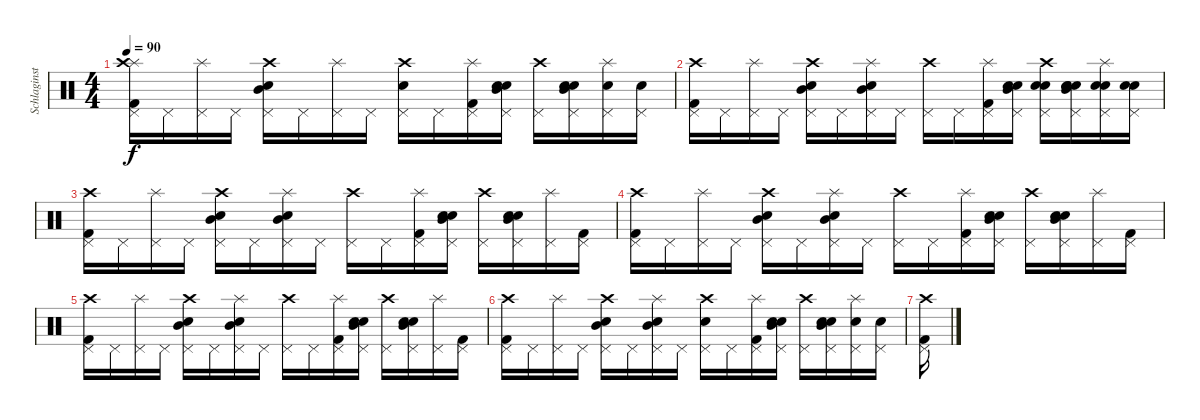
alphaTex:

\track ("Schlaginstrumente - Auswahl" "Schlaginst") {instrument percussion}
\staff {score}
\articulation defaults
\ts (4 4)
\tempo 90
\clef neutral
\ks c
("Splash (hit)" "Crash high (hit)" "Kick (hit) 2" "Pedal Hi-Hat (hit)").16{dy f} "Pedal Hi-Hat (hit)".16 ("Splash (hit)" "Pedal Hi-Hat (hit)").16 "Pedal Hi-Hat (hit)".16 ("Mid Tom (hit)" "Snare (hit) 2" "Crash high (hit)" "Pedal Hi-Hat (hit)").16 "Pedal Hi-Hat (hit)".16 ("Splash (hit)" "Pedal Hi-Hat (hit)").16 "Pedal Hi-Hat (hit)".16 ("Crash high (hit)" "Snare (hit) 2" "Pedal Hi-Hat (hit)").16 "Pedal Hi-Hat (hit)".16 ("Splash (hit)" "Kick (hit) 2" "Pedal Hi-Hat (hit)").16 ("Mid Tom (hit)" "Snare (hit) 2" "Electric Snare (hit)" "Pedal Hi-Hat (hit)").16 ("Crash high (hit)" "Pedal Hi-Hat (hit)").16 ("Mid Tom (hit)" "Snare (hit) 2" "Electric Snare (hit)" "Pedal Hi-Hat (hit)").16 ("Snare (hit) 2" "Splash (hit)" "Pedal Hi-Hat (hit)").16 ("Snare (hit) 2" "Pedal Hi-Hat (hit)").16 |
("Crash high (hit)" "Kick (hit) 2" "Pedal Hi-Hat (hit)").16 "Pedal Hi-Hat (hit)".16 ("Splash (hit)" "Pedal Hi-Hat (hit)").16 "Pedal Hi-Hat (hit)".16 ("Mid Tom (hit)" "Snare (hit) 2" "Crash high (hit)" "Pedal Hi-Hat (hit)").16 "Pedal Hi-Hat (hit)".16 ("Snare (hit) 2" "Mid Tom (hit)" "Splash (hit)" "Pedal Hi-Hat (hit)").16 "Pedal Hi-Hat (hit)".16 ("Crash high (hit)" "Pedal Hi-Hat (hit)").16 "Pedal Hi-Hat (hit)".16 ("Splash (hit)" "Kick (hit) 2" "Pedal Hi-Hat (hit)").16 ("Mid Tom (hit)" "Snare (hit) 2" "Electric Snare (hit)" "Pedal Hi-Hat (hit)").16 ("Crash high (hit)" "Electric Snare (hit)" "Pedal Hi-Hat (hit)" "Snare (hit) 2").16 ("Mid Tom (hit)" "Snare (hit) 2" "Electric Snare (hit)" "Pedal Hi-Hat (hit)" "Snare (hit) 2").16 ("Splash (hit)" "Electric Snare (hit)" "Pedal Hi-Hat (hit)" "Snare (hit) 2").16 ("Electric Snare (hit)" "Pedal Hi-Hat (hit)" "Snare (hit) 2").16 |
("Crash high (hit)" "Kick (hit) 2" "Pedal Hi-Hat (hit)").16 "Pedal Hi-Hat (hit)".16 ("Splash (hit)" "Pedal Hi-Hat (hit)").16 "Pedal Hi-Hat (hit)".16 ("Mid Tom (hit)" "Snare (hit) 2" "Crash high (hit)" "Pedal Hi-Hat (hit)").16 "Pedal Hi-Hat (hit)".16 ("Snare (hit) 2" "Mid Tom (hit)" "Splash (hit)" "Pedal Hi-Hat (hit)").16 "Pedal Hi-Hat (hit)".16 ("Crash high (hit)" "Pedal Hi-Hat (hit)").16 "Pedal Hi-Hat (hit)".16 ("Splash (hit)" "Kick (hit) 2" "Pedal Hi-Hat (hit)").16 ("Mid Tom (hit)" "Snare (hit) 2" "Electric Snare (hit)" "Pedal Hi-Hat (hit)").16 ("Crash high (hit)" "Pedal Hi-Hat (hit)").16 ("Mid Tom (hit)" "Snare (hit) 2" "Electric Snare (hit)" "Pedal Hi-Hat (hit)").16 ("Splash (hit)" "Pedal Hi-Hat (hit)").16 ("Kick (hit) 2" "Pedal Hi-Hat (hit)").16 |
("Crash high (hit)" "Kick (hit) 2" "Pedal Hi-Hat (hit)").16 "Pedal Hi-Hat (hit)".16 ("Splash (hit)" "Pedal Hi-Hat (hit)").16 "Pedal Hi-Hat (hit)".16 ("Mid Tom (hit)" "Snare (hit) 2" "Crash high (hit)" "Pedal Hi-Hat (hit)").16 "Pedal Hi-Hat (hit)".16 ("Snare (hit) 2" "Mid Tom (hit)" "Splash (hit)" "Pedal Hi-Hat (hit)").16 "Pedal Hi-Hat (hit)".16 ("Crash high (hit)" "Pedal Hi-Hat (hit)").16 "Pedal Hi-Hat (hit)".16 ("Splash (hit)" "Kick (hit) 2" "Pedal Hi-Hat (hit)").16 ("Mid Tom (hit)" "Snare (hit) 2" "Electric Snare (hit)" "Pedal Hi-Hat (hit)").16 ("Crash high (hit)" "Pedal Hi-Hat (hit)").16 ("Mid Tom (hit)" "Snare (hit) 2" "Electric Snare (hit)" "Pedal Hi-Hat (hit)").16 ("Splash (hit)" "Pedal Hi-Hat (hit)").16 ("Kick (hit) 2" "Pedal Hi-Hat (hit)").16 |
("Crash high (hit)" "Kick (hit) 2" "Pedal Hi-Hat (hit)").16 "Pedal Hi-Hat (hit)".16 ("Splash (hit)" "Pedal Hi-Hat (hit)").16 "Pedal Hi-Hat (hit)".16 ("Mid Tom (hit)" "Snare (hit) 2" "Crash high (hit)" "Pedal Hi-Hat (hit)").16 "Pedal Hi-Hat (hit)".16 ("Snare (hit) 2" "Mid Tom (hit)" "Splash (hit)" "Pedal Hi-Hat (hit)").16 "Pedal Hi-Hat (hit)".16 ("Crash high (hit)" "Pedal Hi-Hat (hit)").16 "Pedal Hi-Hat (hit)".16 ("Splash (hit)" "Kick (hit) 2" "Pedal Hi-Hat (hit)").16 ("Mid Tom (hit)" "Snare (hit) 2" "Electric Snare (hit)" "Pedal Hi-Hat (hit)").16 ("Crash high (hit)" "Pedal Hi-Hat (hit)").16 ("Mid Tom (hit)" "Snare (hit) 2" "Electric Snare (hit)" "Pedal Hi-Hat (hit)").16 ("Splash (hit)" "Pedal Hi-Hat (hit)").16 ("Kick (hit) 2" "Pedal Hi-Hat (hit)").16 |
("Crash high (hit)" "Kick (hit) 2" "Pedal Hi-Hat (hit)").16 "Pedal Hi-Hat (hit)".16 ("Splash (hit)" "Pedal Hi-Hat (hit)").16 "Pedal Hi-Hat (hit)".16 ("Mid Tom (hit)" "Snare (hit) 2" "Crash high (hit)" "Pedal Hi-Hat (hit)").16 "Pedal Hi-Hat (hit)".16 ("Snare (hit) 2" "Mid Tom (hit)" "Splash (hit)" "Pedal Hi-Hat (hit)").16 "Pedal Hi-Hat (hit)".16 ("Crash high (hit)" "Snare (hit) 2" "Pedal Hi-Hat (hit)").16 "Pedal Hi-Hat (hit)".16 ("Splash (hit)" "Kick (hit) 2" "Pedal Hi-Hat (hit)").16 ("Mid Tom (hit)" "Snare (hit) 2" "Electric Snare (hit)" "Pedal Hi-Hat (hit)").16 ("Crash high (hit)" "Pedal Hi-Hat (hit)").16 ("Mid Tom (hit)" "Snare (hit) 2" "Electric Snare (hit)" "Pedal Hi-Hat (hit)").16 ("Snare (hit) 2" "Splash (hit)" "Pedal Hi-Hat (hit)").16 ("Snare (hit) 2" "Pedal Hi-Hat (hit)").16 |
("Crash high (hit)" "Kick (hit) 2" "Pedal Hi-Hat (hit)").16
